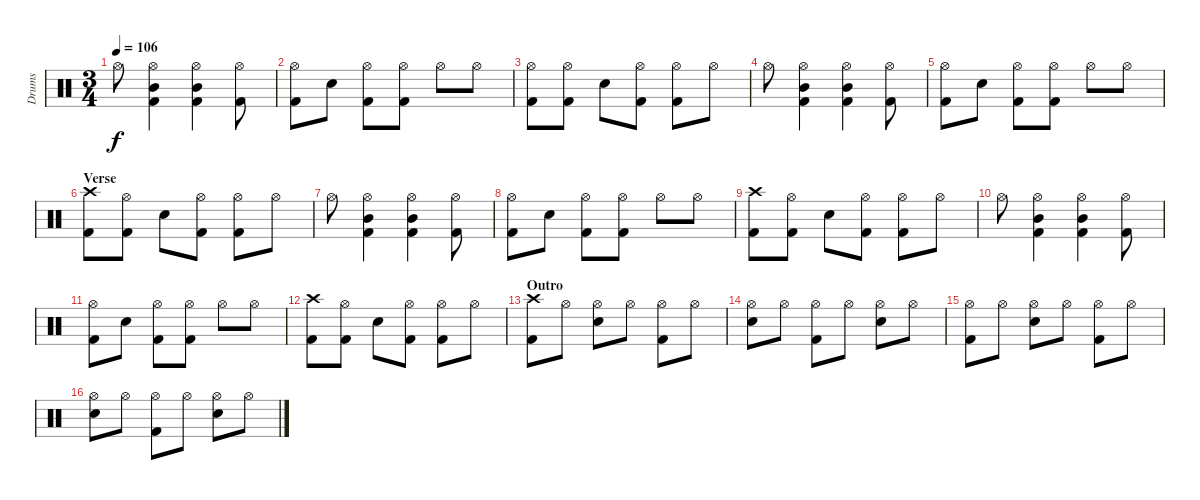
\track ("Drums" "Drums") {instrument percussion}
\staff {score}
\articulation defaults
\ts (3 4)
\tempo 106
\clef neutral
\ks c "Hi-Hat (open)".8{dy f}
("Hi-Hat (open)" "Mid Tom (hit)" "Kick (hit) 2").4 ("Hi-Hat (open)" "Mid Tom (hit)" "Kick (hit) 2").4 ("Hi-Hat (open)" "Kick (hit) 2").8 |
("Hi-Hat (open)" "Kick (hit) 2").8 "Snare (hit) 2".8 ("Hi-Hat (open)" "Kick (hit) 2").8 ("Hi-Hat (open)" "Kick (hit) 2").8 "Hi-Hat (open)".8 "Hi-Hat (open)".8 |
("Hi-Hat (open)" "Kick (hit) 2").8 ("Hi-Hat (open)" "Kick (hit) 2").8 "Snare (hit) 2".8 ("Hi-Hat (open)" "Kick (hit) 2").8 ("Hi-Hat (open)" "Kick (hit) 2").8 "Hi-Hat (open)".8 |
"Hi-Hat (open)".8 ("Hi-Hat (open)" "Mid Tom (hit)" "Kick (hit) 2").4 ("Hi-Hat (open)" "Mid Tom (hit)" "Kick (hit) 2").4 ("Hi-Hat (open)" "Kick (hit) 2").8 |
("Hi-Hat (open)" "Kick (hit) 2").8 "Snare (hit) 2".8 ("Hi-Hat (open)" "Kick (hit) 2").8 ("Hi-Hat (open)" "Kick (hit) 2").8 "Hi-Hat (open)".8 "Hi-Hat (open)".8 |
\section ("" "Verse")
("Crash high (hit)" "Kick (hit) 2").8 ("Hi-Hat (open)" "Kick (hit) 2").8 "Snare (hit) 2".8 ("Hi-Hat (open)" "Kick (hit) 2").8 ("Hi-Hat (open)" "Kick (hit) 2").8 "Hi-Hat (open)".8 |
"Hi-Hat (open)".8 ("Hi-Hat (open)" "Mid Tom (hit)" "Kick (hit) 2").4 ("Hi-Hat (open)" "Mid Tom (hit)" "Kick (hit) 2").4 ("Hi-Hat (open)" "Kick (hit) 2").8 |
("Hi-Hat (open)" "Kick (hit) 2").8 "Snare (hit) 2".8 ("Hi-Hat (open)" "Kick (hit) 2").8 ("Hi-Hat (open)" "Kick (hit) 2").8 "Hi-Hat (open)".8 "Hi-Hat (open)".8 |
("Crash high (hit)" "Kick (hit) 2").8 ("Hi-Hat (open)" "Kick (hit) 2").8 "Snare (hit) 2".8 ("Hi-Hat (open)" "Kick (hit) 2").8 ("Hi-Hat (open)" "Kick (hit) 2").8 "Hi-Hat (open)".8 |
"Hi-Hat (open)".8 ("Hi-Hat (open)" "Mid Tom (hit)" "Kick (hit) 2").4 ("Hi-Hat (open)" "Mid Tom (hit)" "Kick (hit) 2").4 ("Hi-Hat (open)" "Kick (hit) 2").8 |
("Hi-Hat (open)" "Kick (hit) 2").8 "Snare (hit) 2".8 ("Hi-Hat (open)" "Kick (hit) 2").8 ("Hi-Hat (open)" "Kick (hit) 2").8 "Hi-Hat (open)".8 "Hi-Hat (open)".8 |
("Crash high (hit)" "Kick (hit) 2").8 ("Hi-Hat (open)" "Kick (hit) 2").8 "Snare (hit) 2".8 ("Hi-Hat (open)" "Kick (hit) 2").8 ("Hi-Hat (open)" "Kick (hit) 2").8 "Hi-Hat (open)".8 |
\section ("" "Outro")
("Crash high (hit)" "Kick (hit) 2").8 "Hi-Hat (open)".8 ("Hi-Hat (open)" "Snare (hit) 2").8 "Hi-Hat (open)".8 ("Hi-Hat (open)" "Kick (hit) 2").8 "Hi-Hat (open)".8 |
("Hi-Hat (open)" "Snare (hit) 2").8 "Hi-Hat (open)".8 ("Hi-Hat (open)" "Kick (hit) 2").8 "Hi-Hat (open)".8 ("Hi-Hat (open)" "Snare (hit) 2").8 "Hi-Hat (open)".8 |
("Hi-Hat (open)" "Kick (hit) 2").8 "Hi-Hat (open)".8 ("Hi-Hat (open)" "Snare (hit) 2").8 "Hi-Hat (open)".8 ("Hi-Hat (open)" "Kick (hit) 2").8 "Hi-Hat (open)".8 |
("Hi-Hat (open)" "Snare (hit) 2").8 "Hi-Hat (open)".8 ("Hi-Hat (open)" "Kick (hit) 2").8 "Hi-Hat (open)".8 ("Hi-Hat (open)" "Snare (hit) 2").8 "Hi-Hat (open)".8
